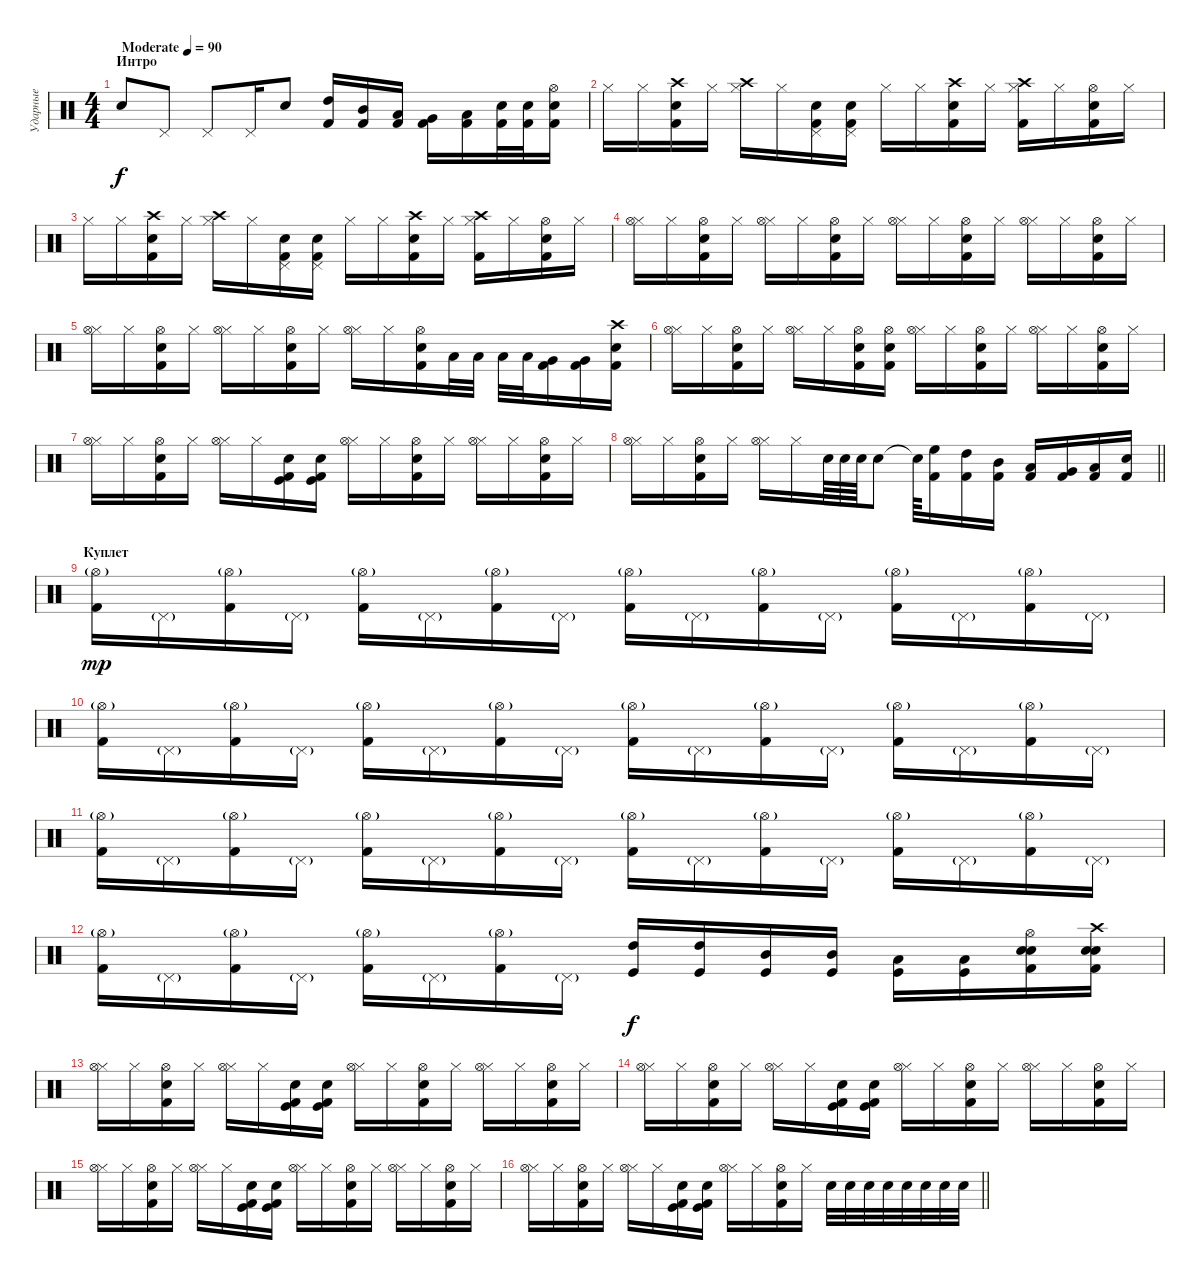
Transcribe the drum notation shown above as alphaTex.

\track ("Ударные" "Ударные") {instrument percussion}
\staff {score}
\articulation defaults
\ts (4 4)
\section ("" "Интро")
\tempo (90 "Moderate")
\clef neutral
\ks c "Snare (hit) 2".8{dy f} "Pedal Hi-Hat (hit)".8 "Pedal Hi-Hat (hit)".8 "Pedal Hi-Hat (hit)".16 "Snare (hit) 2".8
("High Tom (hit)" "Kick (hit) 2").16 ("Mid Tom (hit)" "Kick (hit) 2").16 ("Low Tom (hit)" "Kick (hit) 2").16 ("Very Low Tom (hit)" "Kick (hit) 2").16 ("Low Floor Tom (hit)" "Kick (hit) 2").16 ("Electric Snare (hit)" "Kick (hit) 2").32 ("Electric Snare (hit)" "Kick (hit) 2").32 ("Electric Snare (hit)" "Kick (hit) 2" "Hi-Hat (open)").16 |
"Hi-Hat (closed)".16 "Hi-Hat (closed)".16 ("Snare (hit) 2" "Crash high (hit)" "Kick (hit) 2").16 "Hi-Hat (closed)".16 ("Hi-Hat (closed)" "Crash high (hit)").16 "Hi-Hat (closed)".16 ("Snare (hit) 2" "Pedal Hi-Hat (hit)" "Kick (hit) 2").16 ("Snare (hit) 2" "Pedal Hi-Hat (hit)" "Kick (hit) 2").16 "Hi-Hat (closed)".16 "Hi-Hat (closed)".16 ("Snare (hit) 2" "Kick (hit) 2" "Crash high (hit)").16 "Hi-Hat (closed)".16 ("Hi-Hat (closed)" "Kick (hit) 2" "Crash high (hit)").16 "Hi-Hat (closed)".16 ("Snare (hit) 2" "Kick (hit) 2" "Hi-Hat (open)").16 "Hi-Hat (closed)".16 |
"Hi-Hat (closed)".16 "Hi-Hat (closed)".16 ("Snare (hit) 2" "Crash high (hit)" "Kick (hit) 2").16 "Hi-Hat (closed)".16 ("Hi-Hat (closed)" "Crash high (hit)").16 "Hi-Hat (closed)".16 ("Snare (hit) 2" "Pedal Hi-Hat (hit)" "Kick (hit) 2").16 ("Snare (hit) 2" "Pedal Hi-Hat (hit)" "Kick (hit) 2").16 "Hi-Hat (closed)".16 "Hi-Hat (closed)".16 ("Snare (hit) 2" "Kick (hit) 2" "Crash high (hit)").16 "Hi-Hat (closed)".16 ("Hi-Hat (closed)" "Kick (hit) 2" "Crash high (hit)").16 "Hi-Hat (closed)".16 ("Snare (hit) 2" "Kick (hit) 2" "Hi-Hat (open)").16 "Hi-Hat (closed)".16 |
("Hi-Hat (closed)" "Hi-Hat (open)").16 "Hi-Hat (closed)".16 ("Snare (hit) 2" "Hi-Hat (open)" "Kick (hit) 2").16 "Hi-Hat (closed)".16 ("Hi-Hat (closed)" "Hi-Hat (open)").16 "Hi-Hat (closed)".16 ("Snare (hit) 2" "Hi-Hat (open)" "Kick (hit) 2").16 "Hi-Hat (closed)".16 ("Hi-Hat (closed)" "Hi-Hat (open)").16 "Hi-Hat (closed)".16 ("Snare (hit) 2" "Hi-Hat (open)" "Kick (hit) 2").16 "Hi-Hat (closed)".16 ("Hi-Hat (closed)" "Hi-Hat (open)").16 "Hi-Hat (closed)".16 ("Snare (hit) 2" "Hi-Hat (open)" "Kick (hit) 2").16 "Hi-Hat (closed)".16 |
("Hi-Hat (closed)" "Hi-Hat (open)").16 "Hi-Hat (closed)".16 ("Snare (hit) 2" "Hi-Hat (open)" "Kick (hit) 2").16 "Hi-Hat (closed)".16 ("Hi-Hat (closed)" "Hi-Hat (open)").16 "Hi-Hat (closed)".16 ("Snare (hit) 2" "Hi-Hat (open)" "Kick (hit) 2").16 "Hi-Hat (closed)".16 ("Hi-Hat (closed)" "Hi-Hat (open)").16 "Hi-Hat (closed)".16 ("Snare (hit) 2" "Hi-Hat (open)" "Kick (hit) 2").16 "Low Tom (hit)".32 "Low Tom (hit)".32 "Low Tom (hit)".32 "Low Tom (hit)".32 ("Very Low Tom (hit)" "Kick (hit) 2").16 ("Very Low Tom (hit)" "Kick (hit) 2").16 ("Crash high (hit)" "Kick (hit) 2" "Electric Snare (hit)").16 |
("Hi-Hat (closed)" "Hi-Hat (open)").16 "Hi-Hat (closed)".16 ("Snare (hit) 2" "Hi-Hat (open)" "Kick (hit) 2").16 "Hi-Hat (closed)".16 ("Hi-Hat (closed)" "Hi-Hat (open)").16 "Hi-Hat (closed)".16 ("Snare (hit) 2" "Hi-Hat (open)" "Kick (hit) 2").16 ("Snare (hit) 2" "Hi-Hat (open)" "Kick (hit) 2").16 ("Hi-Hat (closed)" "Hi-Hat (open)").16 "Hi-Hat (closed)".16 ("Snare (hit) 2" "Kick (hit) 2" "Hi-Hat (open)").16 "Hi-Hat (closed)".16 ("Hi-Hat (closed)" "Hi-Hat (open)").16 "Hi-Hat (closed)".16 ("Snare (hit) 2" "Kick (hit) 2" "Hi-Hat (open)").16 "Hi-Hat (closed)".16 |
("Hi-Hat (closed)" "Hi-Hat (open)").16 "Hi-Hat (closed)".16 ("Snare (hit) 2" "Hi-Hat (open)" "Kick (hit) 2").16 "Hi-Hat (closed)".16 ("Hi-Hat (closed)" "Hi-Hat (open)").16 "Hi-Hat (closed)".16 ("Snare (hit) 2" "Kick (hit)" "Kick (hit) 2").16 ("Snare (hit) 2" "Kick (hit)" "Kick (hit) 2").16 ("Hi-Hat (closed)" "Hi-Hat (open)").16 "Hi-Hat (closed)".16 ("Snare (hit) 2" "Kick (hit) 2" "Hi-Hat (open)").16 "Hi-Hat (closed)".16 ("Hi-Hat (closed)" "Hi-Hat (open)").16 "Hi-Hat (closed)".16 ("Snare (hit) 2" "Kick (hit) 2" "Hi-Hat (open)").16 "Hi-Hat (closed)".16 |
\barLineRight lightlight
("Hi-Hat (closed)" "Hi-Hat (open)").16 "Hi-Hat (closed)".16 ("Snare (hit) 2" "Hi-Hat (open)" "Kick (hit) 2").16 "Hi-Hat (closed)".16 ("Hi-Hat (closed)" "Hi-Hat (open)").16 "Hi-Hat (closed)".16 "Snare (hit) 2".64 "Snare (hit) 2".64 "Snare (hit) 2".64 "Snare (hit) 2".8 "Snare (hit) 2"{t}.64 ("High Floor Tom (hit)" "Kick (hit) 2").16 ("High Tom (hit)" "Kick (hit) 2").16 ("Mid Tom (hit)" "Kick (hit) 2").16 ("Low Tom (hit)" "Kick (hit) 2").16 ("Very Low Tom (hit)" "Kick (hit) 2").16 ("Kick (hit) 2" "Low Floor Tom (hit)").16 ("Kick (hit) 2" "Electric Snare (hit)").16 |
\section ("" "Куплет")
("Hi-Hat (open)"{g} "Kick (hit) 2").16{dy mp} "Pedal Hi-Hat (hit)"{g}.16 ("Hi-Hat (open)"{g} "Kick (hit) 2").16 "Pedal Hi-Hat (hit)"{g}.16 ("Hi-Hat (open)"{g} "Kick (hit) 2").16 "Pedal Hi-Hat (hit)"{g}.16 ("Hi-Hat (open)"{g} "Kick (hit) 2").16 "Pedal Hi-Hat (hit)"{g}.16 ("Hi-Hat (open)"{g} "Kick (hit) 2").16 "Pedal Hi-Hat (hit)"{g}.16 ("Hi-Hat (open)"{g} "Kick (hit) 2").16 "Pedal Hi-Hat (hit)"{g}.16 ("Hi-Hat (open)"{g} "Kick (hit) 2").16 "Pedal Hi-Hat (hit)"{g}.16 ("Hi-Hat (open)"{g} "Kick (hit) 2").16 "Pedal Hi-Hat (hit)"{g}.16 |
("Hi-Hat (open)"{g} "Kick (hit) 2").16 "Pedal Hi-Hat (hit)"{g}.16 ("Hi-Hat (open)"{g} "Kick (hit) 2").16 "Pedal Hi-Hat (hit)"{g}.16 ("Hi-Hat (open)"{g} "Kick (hit) 2").16 "Pedal Hi-Hat (hit)"{g}.16 ("Hi-Hat (open)"{g} "Kick (hit) 2").16 "Pedal Hi-Hat (hit)"{g}.16 ("Hi-Hat (open)"{g} "Kick (hit) 2").16 "Pedal Hi-Hat (hit)"{g}.16 ("Hi-Hat (open)"{g} "Kick (hit) 2").16 "Pedal Hi-Hat (hit)"{g}.16 ("Hi-Hat (open)"{g} "Kick (hit) 2").16 "Pedal Hi-Hat (hit)"{g}.16 ("Hi-Hat (open)"{g} "Kick (hit) 2").16 "Pedal Hi-Hat (hit)"{g}.16 |
("Hi-Hat (open)"{g} "Kick (hit) 2").16 "Pedal Hi-Hat (hit)"{g}.16 ("Hi-Hat (open)"{g} "Kick (hit) 2").16 "Pedal Hi-Hat (hit)"{g}.16 ("Hi-Hat (open)"{g} "Kick (hit) 2").16 "Pedal Hi-Hat (hit)"{g}.16 ("Hi-Hat (open)"{g} "Kick (hit) 2").16 "Pedal Hi-Hat (hit)"{g}.16 ("Hi-Hat (open)"{g} "Kick (hit) 2").16 "Pedal Hi-Hat (hit)"{g}.16 ("Hi-Hat (open)"{g} "Kick (hit) 2").16 "Pedal Hi-Hat (hit)"{g}.16 ("Hi-Hat (open)"{g} "Kick (hit) 2").16 "Pedal Hi-Hat (hit)"{g}.16 ("Hi-Hat (open)"{g} "Kick (hit) 2").16 "Pedal Hi-Hat (hit)"{g}.16 |
("Hi-Hat (open)"{g} "Kick (hit) 2").16 "Pedal Hi-Hat (hit)"{g}.16 ("Hi-Hat (open)"{g} "Kick (hit) 2").16 "Pedal Hi-Hat (hit)"{g}.16 ("Hi-Hat (open)"{g} "Kick (hit) 2").16 "Pedal Hi-Hat (hit)"{g}.16 ("Hi-Hat (open)"{g} "Kick (hit) 2").16 "Pedal Hi-Hat (hit)"{g}.16 ("High Tom (hit)" "Kick (hit)").16{dy f} ("High Tom (hit)" "Kick (hit)").16 ("Mid Tom (hit)" "Kick (hit)").16 ("Mid Tom (hit)" "Kick (hit)").16 ("Low Tom (hit)" "Kick (hit)").16 ("Low Tom (hit)" "Kick (hit)").16 ("Hi-Hat (open)" "Electric Snare (hit)" "Electric Snare (hit)" "Kick (hit) 2").16 ("Crash high (hit)" "Electric Snare (hit)" "Electric Snare (hit)" "Kick (hit) 2").16 |
("Hi-Hat (closed)" "Hi-Hat (open)").16 "Hi-Hat (closed)".16 ("Snare (hit) 2" "Hi-Hat (open)" "Kick (hit) 2").16 "Hi-Hat (closed)".16 ("Hi-Hat (closed)" "Hi-Hat (open)").16 "Hi-Hat (closed)".16 ("Snare (hit) 2" "Kick (hit)" "Kick (hit) 2").16 ("Snare (hit) 2" "Kick (hit)" "Kick (hit) 2").16 ("Hi-Hat (closed)" "Hi-Hat (open)").16 "Hi-Hat (closed)".16 ("Snare (hit) 2" "Kick (hit) 2" "Hi-Hat (open)").16 "Hi-Hat (closed)".16 ("Hi-Hat (closed)" "Hi-Hat (open)").16 "Hi-Hat (closed)".16 ("Snare (hit) 2" "Kick (hit) 2" "Hi-Hat (open)").16 "Hi-Hat (closed)".16 |
("Hi-Hat (closed)" "Hi-Hat (open)").16 "Hi-Hat (closed)".16 ("Snare (hit) 2" "Hi-Hat (open)" "Kick (hit) 2").16 "Hi-Hat (closed)".16 ("Hi-Hat (closed)" "Hi-Hat (open)").16 "Hi-Hat (closed)".16 ("Snare (hit) 2" "Kick (hit)" "Kick (hit) 2").16 ("Snare (hit) 2" "Kick (hit)" "Kick (hit) 2").16 ("Hi-Hat (closed)" "Hi-Hat (open)").16 "Hi-Hat (closed)".16 ("Snare (hit) 2" "Kick (hit) 2" "Hi-Hat (open)").16 "Hi-Hat (closed)".16 ("Hi-Hat (closed)" "Hi-Hat (open)").16 "Hi-Hat (closed)".16 ("Snare (hit) 2" "Kick (hit) 2" "Hi-Hat (open)").16 "Hi-Hat (closed)".16 |
("Hi-Hat (closed)" "Hi-Hat (open)").16 "Hi-Hat (closed)".16 ("Snare (hit) 2" "Hi-Hat (open)" "Kick (hit) 2").16 "Hi-Hat (closed)".16 ("Hi-Hat (closed)" "Hi-Hat (open)").16 "Hi-Hat (closed)".16 ("Snare (hit) 2" "Kick (hit)" "Kick (hit) 2").16 ("Snare (hit) 2" "Kick (hit)" "Kick (hit) 2").16 ("Hi-Hat (closed)" "Hi-Hat (open)").16 "Hi-Hat (closed)".16 ("Snare (hit) 2" "Kick (hit) 2" "Hi-Hat (open)").16 "Hi-Hat (closed)".16 ("Hi-Hat (closed)" "Hi-Hat (open)").16 "Hi-Hat (closed)".16 ("Snare (hit) 2" "Kick (hit) 2" "Hi-Hat (open)").16 "Hi-Hat (closed)".16 |
\barLineRight lightlight
("Hi-Hat (closed)" "Hi-Hat (open)").16 "Hi-Hat (closed)".16 ("Snare (hit) 2" "Hi-Hat (open)" "Kick (hit) 2").16 "Hi-Hat (closed)".16 ("Hi-Hat (closed)" "Hi-Hat (open)").16 "Hi-Hat (closed)".16 ("Snare (hit) 2" "Kick (hit)" "Kick (hit) 2").16 ("Snare (hit) 2" "Kick (hit)" "Kick (hit) 2").16 ("Hi-Hat (closed)" "Hi-Hat (open)").16 "Hi-Hat (closed)".16 ("Snare (hit) 2" "Kick (hit) 2" "Hi-Hat (open)").16 "Hi-Hat (closed)".16 "Electric Snare (hit)".32 "Electric Snare (hit)".32 "Electric Snare (hit)".32 "Electric Snare (hit)".32 "Electric Snare (hit)".32 "Electric Snare (hit)".32 "Electric Snare (hit)".32 "Electric Snare (hit)".32
